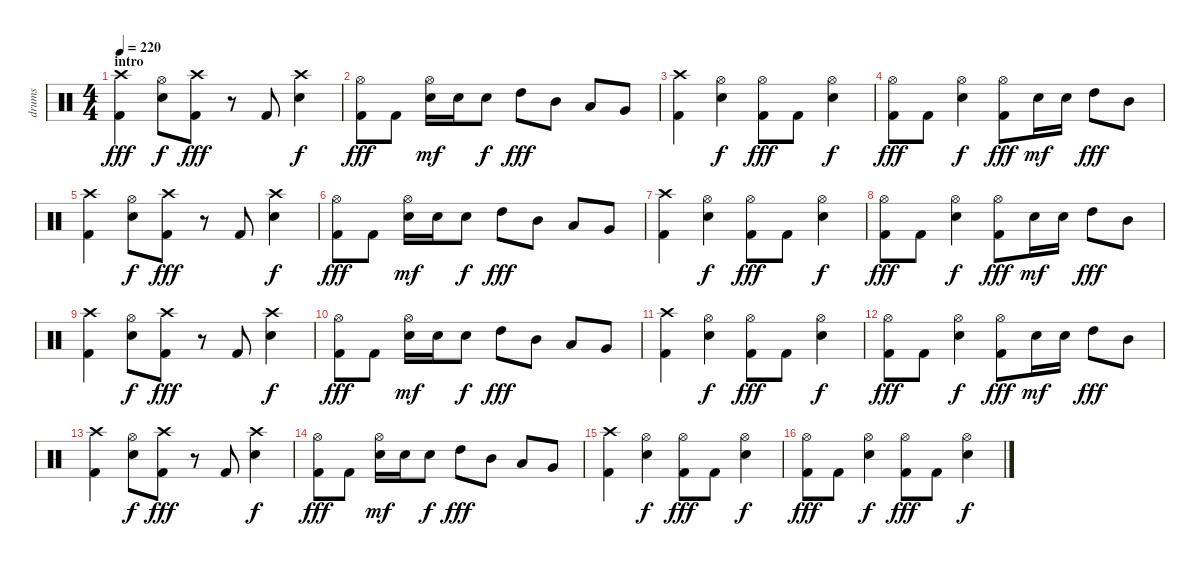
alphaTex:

\track ("drums" "drums") {instrument percussion}
\staff {score}
\articulation defaults
\ts (4 4)
\section ("" "intro")
\tempo 220
\clef neutral
\ks c
("Crash high (hit)" "Kick (hit) 2").4{dy fff} ("Hi-Hat (open)" "Snare (hit) 2").8{dy f} ("Crash high (hit)" "Kick (hit) 2").8{dy fff} r.8 "Kick (hit) 2".8 ("Crash high (hit)" "Snare (hit) 2").4{dy f} |
("Hi-Hat (open)" "Kick (hit) 2").8{dy fff} "Kick (hit) 2".8 ("Hi-Hat (open)" "Snare (hit) 2").16{dy mf} "Snare (hit) 2".16 "Snare (hit) 2".8{dy f} "High Tom (hit)".8{dy fff} "Mid Tom (hit)".8 "Low Tom (hit)".8 "Very Low Tom (hit)".8 |
("Crash high (hit)" "Kick (hit) 2").4 ("Hi-Hat (open)" "Snare (hit) 2").4{dy f} ("Hi-Hat (open)" "Kick (hit) 2").8{dy fff} "Kick (hit) 2".8 ("Hi-Hat (open)" "Snare (hit) 2").4{dy f} |
("Hi-Hat (open)" "Kick (hit) 2").8{dy fff} "Kick (hit) 2".8 ("Hi-Hat (open)" "Snare (hit) 2").4{dy f} ("Hi-Hat (open)" "Kick (hit) 2").8{dy fff} "Snare (hit) 2".16{dy mf} "Snare (hit) 2".16 "High Tom (hit)".8{dy fff} "Mid Tom (hit)".8 |
("Crash high (hit)" "Kick (hit) 2").4 ("Hi-Hat (open)" "Snare (hit) 2").8{dy f} ("Crash high (hit)" "Kick (hit) 2").8{dy fff} r.8 "Kick (hit) 2".8 ("Crash high (hit)" "Snare (hit) 2").4{dy f} |
("Hi-Hat (open)" "Kick (hit) 2").8{dy fff} "Kick (hit) 2".8 ("Hi-Hat (open)" "Snare (hit) 2").16{dy mf} "Snare (hit) 2".16 "Snare (hit) 2".8{dy f} "High Tom (hit)".8{dy fff} "Mid Tom (hit)".8 "Low Tom (hit)".8 "Very Low Tom (hit)".8 |
("Crash high (hit)" "Kick (hit) 2").4 ("Hi-Hat (open)" "Snare (hit) 2").4{dy f} ("Hi-Hat (open)" "Kick (hit) 2").8{dy fff} "Kick (hit) 2".8 ("Hi-Hat (open)" "Snare (hit) 2").4{dy f} |
("Hi-Hat (open)" "Kick (hit) 2").8{dy fff} "Kick (hit) 2".8 ("Hi-Hat (open)" "Snare (hit) 2").4{dy f} ("Hi-Hat (open)" "Kick (hit) 2").8{dy fff} "Snare (hit) 2".16{dy mf} "Snare (hit) 2".16 "High Tom (hit)".8{dy fff} "Mid Tom (hit)".8 |
("Crash high (hit)" "Kick (hit) 2").4 ("Hi-Hat (open)" "Snare (hit) 2").8{dy f} ("Crash high (hit)" "Kick (hit) 2").8{dy fff} r.8 "Kick (hit) 2".8 ("Crash high (hit)" "Snare (hit) 2").4{dy f} |
("Hi-Hat (open)" "Kick (hit) 2").8{dy fff} "Kick (hit) 2".8 ("Hi-Hat (open)" "Snare (hit) 2").16{dy mf} "Snare (hit) 2".16 "Snare (hit) 2".8{dy f} "High Tom (hit)".8{dy fff} "Mid Tom (hit)".8 "Low Tom (hit)".8 "Very Low Tom (hit)".8 |
("Crash high (hit)" "Kick (hit) 2").4 ("Hi-Hat (open)" "Snare (hit) 2").4{dy f} ("Hi-Hat (open)" "Kick (hit) 2").8{dy fff} "Kick (hit) 2".8 ("Hi-Hat (open)" "Snare (hit) 2").4{dy f} |
("Hi-Hat (open)" "Kick (hit) 2").8{dy fff} "Kick (hit) 2".8 ("Hi-Hat (open)" "Snare (hit) 2").4{dy f} ("Hi-Hat (open)" "Kick (hit) 2").8{dy fff} "Snare (hit) 2".16{dy mf} "Snare (hit) 2".16 "High Tom (hit)".8{dy fff} "Mid Tom (hit)".8 |
("Crash high (hit)" "Kick (hit) 2").4 ("Hi-Hat (open)" "Snare (hit) 2").8{dy f} ("Crash high (hit)" "Kick (hit) 2").8{dy fff} r.8 "Kick (hit) 2".8 ("Crash high (hit)" "Snare (hit) 2").4{dy f} |
("Hi-Hat (open)" "Kick (hit) 2").8{dy fff} "Kick (hit) 2".8 ("Hi-Hat (open)" "Snare (hit) 2").16{dy mf} "Snare (hit) 2".16 "Snare (hit) 2".8{dy f} "High Tom (hit)".8{dy fff} "Mid Tom (hit)".8 "Low Tom (hit)".8 "Very Low Tom (hit)".8 |
("Crash high (hit)" "Kick (hit) 2").4 ("Hi-Hat (open)" "Snare (hit) 2").4{dy f} ("Hi-Hat (open)" "Kick (hit) 2").8{dy fff} "Kick (hit) 2".8 ("Hi-Hat (open)" "Snare (hit) 2").4{dy f} |
("Hi-Hat (open)" "Kick (hit) 2").8{dy fff} "Kick (hit) 2".8 ("Hi-Hat (open)" "Snare (hit) 2").4{dy f} ("Hi-Hat (open)" "Kick (hit) 2").8{dy fff} "Kick (hit) 2".8 ("Hi-Hat (open)" "Snare (hit) 2").4{dy f}
